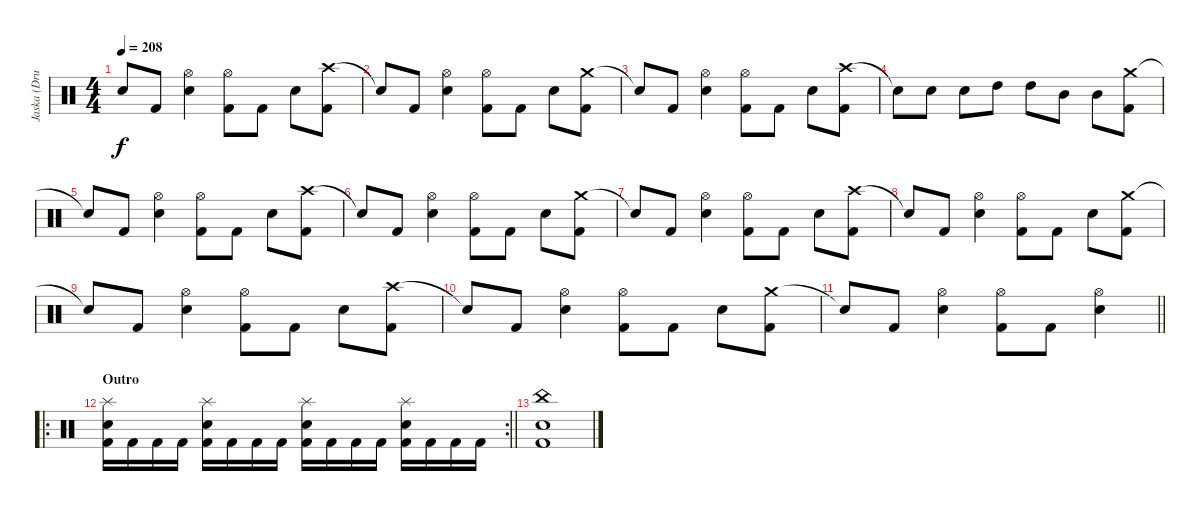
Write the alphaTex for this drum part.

\track ("Jaska (Drums)" "Jaska (Dru") {instrument percussion}
\staff {score}
\articulation defaults
\ts (4 4)
\tempo 208
\clef neutral
\ks c "Snare (hit)"{t}.8{dy f} "Kick (hit) 2".8
("Hi-Hat (open)" "Electric Snare (hit)").4 ("Hi-Hat (open)" "Kick (hit) 2").8 "Kick (hit) 2".8 "Electric Snare (hit)".8 ("Crash high (hit)" "Kick (hit) 2").8 |
"Snare (hit)"{t}.8 "Kick (hit) 2".8 ("Hi-Hat (open)" "Electric Snare (hit)").4 ("Hi-Hat (open)" "Kick (hit) 2").8 "Kick (hit) 2".8 "Electric Snare (hit)".8 ("Crash medium (hit)" "Kick (hit) 2").8 |
"Snare (hit)"{t}.8 "Kick (hit) 2".8 ("Hi-Hat (open)" "Electric Snare (hit)").4 ("Hi-Hat (open)" "Kick (hit) 2").8 "Kick (hit) 2".8 "Electric Snare (hit)".8 ("Crash high (hit)" "Kick (hit) 2").8 |
"Snare (hit)"{t}.8 "Electric Snare (hit)".8 "Electric Snare (hit)".8 "High Tom (hit)".8 "High Tom (hit)".8 "Mid Tom (hit)".8 "Mid Tom (hit)".8 ("Crash medium (hit)" "Kick (hit) 2").8 |
"Snare (hit)"{t}.8 "Kick (hit) 2".8 ("Hi-Hat (open)" "Electric Snare (hit)").4 ("Hi-Hat (open)" "Kick (hit) 2").8 "Kick (hit) 2".8 "Electric Snare (hit)".8 ("Crash high (hit)" "Kick (hit) 2").8 |
"Snare (hit)"{t}.8 "Kick (hit) 2".8 ("Hi-Hat (open)" "Electric Snare (hit)").4 ("Hi-Hat (open)" "Kick (hit) 2").8 "Kick (hit) 2".8 "Electric Snare (hit)".8 ("Crash medium (hit)" "Kick (hit) 2").8 |
"Snare (hit)"{t}.8 "Kick (hit) 2".8 ("Hi-Hat (open)" "Electric Snare (hit)").4 ("Hi-Hat (open)" "Kick (hit) 2").8 "Kick (hit) 2".8 "Electric Snare (hit)".8 ("Crash high (hit)" "Kick (hit) 2").8 |
"Snare (hit)"{t}.8 "Kick (hit) 2".8 ("Hi-Hat (open)" "Electric Snare (hit)").4 ("Hi-Hat (open)" "Kick (hit) 2").8 "Kick (hit) 2".8 "Electric Snare (hit)".8 ("Crash medium (hit)" "Kick (hit) 2").8 |
"Snare (hit)"{t}.8 "Kick (hit) 2".8 ("Hi-Hat (open)" "Electric Snare (hit)").4 ("Hi-Hat (open)" "Kick (hit) 2").8 "Kick (hit) 2".8 "Electric Snare (hit)".8 ("Crash high (hit)" "Kick (hit) 2").8 |
"Snare (hit)"{t}.8 "Kick (hit) 2".8 ("Hi-Hat (open)" "Electric Snare (hit)").4 ("Hi-Hat (open)" "Kick (hit) 2").8 "Kick (hit) 2".8 "Electric Snare (hit)".8 ("Crash medium (hit)" "Kick (hit) 2").8 |
\barLineRight lightlight "Snare (hit)"{t}.8 "Kick (hit) 2".8
("Hi-Hat (open)" "Electric Snare (hit)").4 ("Hi-Hat (open)" "Kick (hit) 2").8 "Kick (hit) 2".8 ("Hi-Hat (open)" "Electric Snare (hit)").4 |
\ro
\rc 2
\section ("" "Outro")
\barLineRight lightlight
("Splash (hit)" "Electric Snare (hit)" "Kick (hit) 2").16 "Kick (hit) 2".16 "Kick (hit) 2".16 "Kick (hit) 2".16 ("Splash (hit)" "Electric Snare (hit)" "Kick (hit) 2").16 "Kick (hit) 2".16 "Kick (hit) 2".16 "Kick (hit) 2".16 ("Splash (hit)" "Electric Snare (hit)" "Kick (hit) 2").16 "Kick (hit) 2".16 "Kick (hit) 2".16 "Kick (hit) 2".16 ("Splash (hit)" "Electric Snare (hit)" "Kick (hit) 2").16 "Kick (hit) 2".16 "Kick (hit) 2".16 "Kick (hit) 2".16 |
("China (hit)" "Electric Snare (hit)" "Kick (hit) 2").1
